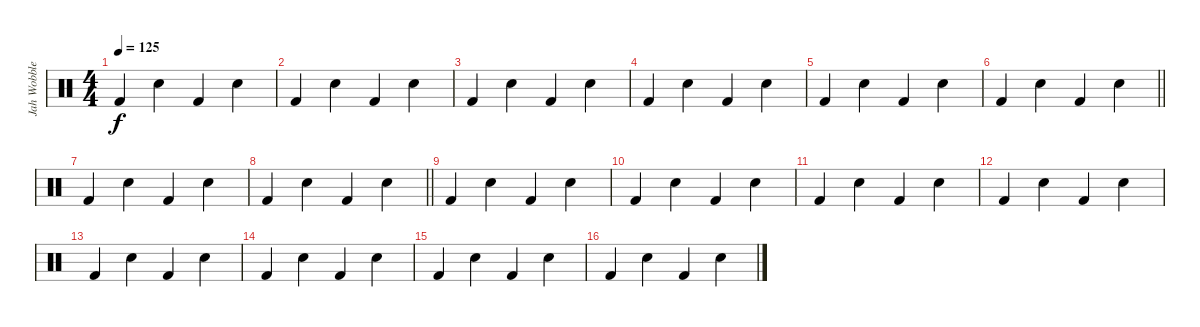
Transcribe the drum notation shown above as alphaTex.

\track ("Jah Wobble  (drums)" "Jah Wobble") {instrument percussion}
\staff {score}
\articulation defaults
\ts (4 4)
\tempo 125
\clef neutral
\ks c "Kick (hit) 2".4{dy f} "Electric Snare (hit)".4 "Kick (hit) 2".4 "Electric Snare (hit)".4
|
"Kick (hit) 2".4 "Electric Snare (hit)".4 "Kick (hit) 2".4 "Electric Snare (hit)".4 |
"Kick (hit) 2".4 "Electric Snare (hit)".4 "Kick (hit) 2".4 "Electric Snare (hit)".4 |
"Kick (hit) 2".4 "Electric Snare (hit)".4 "Kick (hit) 2".4 "Electric Snare (hit)".4 |
"Kick (hit) 2".4 "Electric Snare (hit)".4 "Kick (hit) 2".4 "Electric Snare (hit)".4 |
\barLineRight lightlight "Kick (hit) 2".4 "Electric Snare (hit)".4 "Kick (hit) 2".4 "Electric Snare (hit)".4
|
"Kick (hit) 2".4 "Electric Snare (hit)".4 "Kick (hit) 2".4 "Electric Snare (hit)".4 |
\barLineRight lightlight "Kick (hit) 2".4 "Electric Snare (hit)".4 "Kick (hit) 2".4 "Electric Snare (hit)".4
|
"Kick (hit) 2".4 "Electric Snare (hit)".4 "Kick (hit) 2".4 "Electric Snare (hit)".4 |
"Kick (hit) 2".4 "Electric Snare (hit)".4 "Kick (hit) 2".4 "Electric Snare (hit)".4 |
"Kick (hit) 2".4 "Electric Snare (hit)".4 "Kick (hit) 2".4 "Electric Snare (hit)".4 |
"Kick (hit) 2".4 "Electric Snare (hit)".4 "Kick (hit) 2".4 "Electric Snare (hit)".4 |
"Kick (hit) 2".4 "Electric Snare (hit)".4 "Kick (hit) 2".4 "Electric Snare (hit)".4 |
"Kick (hit) 2".4 "Electric Snare (hit)".4 "Kick (hit) 2".4 "Electric Snare (hit)".4 |
"Kick (hit) 2".4 "Electric Snare (hit)".4 "Kick (hit) 2".4 "Electric Snare (hit)".4 |
"Kick (hit) 2".4 "Electric Snare (hit)".4 "Kick (hit) 2".4 "Electric Snare (hit)".4
